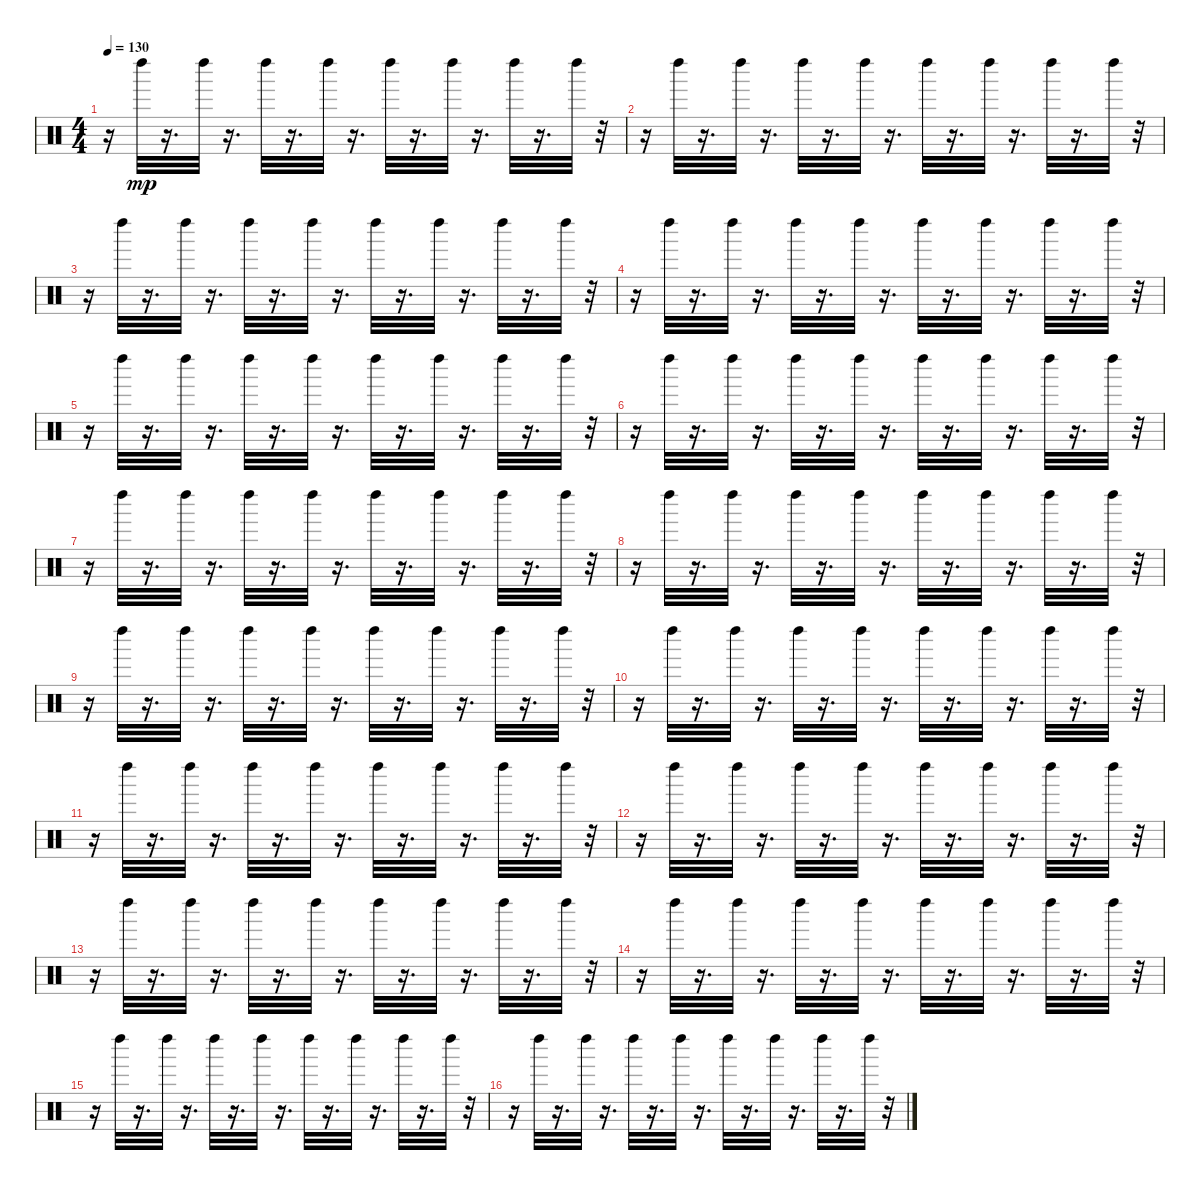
\track "" {instrument percussion}
\staff {score}
\articulation defaults
\ts (4 4)
\tempo 130
\clef neutral
\ks c
r.16{dy mp} "Left Maraca (hit)".32 r.16{d} "Left Maraca (hit)".32 r.16{d} "Left Maraca (hit)".32 r.16{d} "Left Maraca (hit)".32 r.16{d} "Left Maraca (hit)".32 r.16{d} "Left Maraca (hit)".32 r.16{d} "Left Maraca (hit)".32 r.16{d} "Left Maraca (hit)".32 r.32 |
r.16 "Left Maraca (hit)".32 r.16{d} "Left Maraca (hit)".32 r.16{d} "Left Maraca (hit)".32 r.16{d} "Left Maraca (hit)".32 r.16{d} "Left Maraca (hit)".32 r.16{d} "Left Maraca (hit)".32 r.16{d} "Left Maraca (hit)".32 r.16{d} "Left Maraca (hit)".32 r.32 |
r.16 "Left Maraca (hit)".32 r.16{d} "Left Maraca (hit)".32 r.16{d} "Left Maraca (hit)".32 r.16{d} "Left Maraca (hit)".32 r.16{d} "Left Maraca (hit)".32 r.16{d} "Left Maraca (hit)".32 r.16{d} "Left Maraca (hit)".32 r.16{d} "Left Maraca (hit)".32 r.32 |
r.16 "Left Maraca (hit)".32 r.16{d} "Left Maraca (hit)".32 r.16{d} "Left Maraca (hit)".32 r.16{d} "Left Maraca (hit)".32 r.16{d} "Left Maraca (hit)".32 r.16{d} "Left Maraca (hit)".32 r.16{d} "Left Maraca (hit)".32 r.16{d} "Left Maraca (hit)".32 r.32 |
r.16 "Left Maraca (hit)".32 r.16{d} "Left Maraca (hit)".32 r.16{d} "Left Maraca (hit)".32 r.16{d} "Left Maraca (hit)".32 r.16{d} "Left Maraca (hit)".32 r.16{d} "Left Maraca (hit)".32 r.16{d} "Left Maraca (hit)".32 r.16{d} "Left Maraca (hit)".32 r.32 |
r.16 "Left Maraca (hit)".32 r.16{d} "Left Maraca (hit)".32 r.16{d} "Left Maraca (hit)".32 r.16{d} "Left Maraca (hit)".32 r.16{d} "Left Maraca (hit)".32 r.16{d} "Left Maraca (hit)".32 r.16{d} "Left Maraca (hit)".32 r.16{d} "Left Maraca (hit)".32 r.32 |
r.16 "Left Maraca (hit)".32 r.16{d} "Left Maraca (hit)".32 r.16{d} "Left Maraca (hit)".32 r.16{d} "Left Maraca (hit)".32 r.16{d} "Left Maraca (hit)".32 r.16{d} "Left Maraca (hit)".32 r.16{d} "Left Maraca (hit)".32 r.16{d} "Left Maraca (hit)".32 r.32 |
r.16 "Left Maraca (hit)".32 r.16{d} "Left Maraca (hit)".32 r.16{d} "Left Maraca (hit)".32 r.16{d} "Left Maraca (hit)".32 r.16{d} "Left Maraca (hit)".32 r.16{d} "Left Maraca (hit)".32 r.16{d} "Left Maraca (hit)".32 r.16{d} "Left Maraca (hit)".32 r.32 |
r.16 "Left Maraca (hit)".32 r.16{d} "Left Maraca (hit)".32 r.16{d} "Left Maraca (hit)".32 r.16{d} "Left Maraca (hit)".32 r.16{d} "Left Maraca (hit)".32 r.16{d} "Left Maraca (hit)".32 r.16{d} "Left Maraca (hit)".32 r.16{d} "Left Maraca (hit)".32 r.32 |
r.16 "Left Maraca (hit)".32 r.16{d} "Left Maraca (hit)".32 r.16{d} "Left Maraca (hit)".32 r.16{d} "Left Maraca (hit)".32 r.16{d} "Left Maraca (hit)".32 r.16{d} "Left Maraca (hit)".32 r.16{d} "Left Maraca (hit)".32 r.16{d} "Left Maraca (hit)".32 r.32 |
r.16 "Left Maraca (hit)".32 r.16{d} "Left Maraca (hit)".32 r.16{d} "Left Maraca (hit)".32 r.16{d} "Left Maraca (hit)".32 r.16{d} "Left Maraca (hit)".32 r.16{d} "Left Maraca (hit)".32 r.16{d} "Left Maraca (hit)".32 r.16{d} "Left Maraca (hit)".32 r.32 |
r.16 "Left Maraca (hit)".32 r.16{d} "Left Maraca (hit)".32 r.16{d} "Left Maraca (hit)".32 r.16{d} "Left Maraca (hit)".32 r.16{d} "Left Maraca (hit)".32 r.16{d} "Left Maraca (hit)".32 r.16{d} "Left Maraca (hit)".32 r.16{d} "Left Maraca (hit)".32 r.32 |
r.16 "Left Maraca (hit)".32 r.16{d} "Left Maraca (hit)".32 r.16{d} "Left Maraca (hit)".32 r.16{d} "Left Maraca (hit)".32 r.16{d} "Left Maraca (hit)".32 r.16{d} "Left Maraca (hit)".32 r.16{d} "Left Maraca (hit)".32 r.16{d} "Left Maraca (hit)".32 r.32 |
r.16 "Left Maraca (hit)".32 r.16{d} "Left Maraca (hit)".32 r.16{d} "Left Maraca (hit)".32 r.16{d} "Left Maraca (hit)".32 r.16{d} "Left Maraca (hit)".32 r.16{d} "Left Maraca (hit)".32 r.16{d} "Left Maraca (hit)".32 r.16{d} "Left Maraca (hit)".32 r.32 |
r.16 "Left Maraca (hit)".32 r.16{d} "Left Maraca (hit)".32 r.16{d} "Left Maraca (hit)".32 r.16{d} "Left Maraca (hit)".32 r.16{d} "Left Maraca (hit)".32 r.16{d} "Left Maraca (hit)".32 r.16{d} "Left Maraca (hit)".32 r.16{d} "Left Maraca (hit)".32 r.32 |
r.16 "Left Maraca (hit)".32 r.16{d} "Left Maraca (hit)".32 r.16{d} "Left Maraca (hit)".32 r.16{d} "Left Maraca (hit)".32 r.16{d} "Left Maraca (hit)".32 r.16{d} "Left Maraca (hit)".32 r.16{d} "Left Maraca (hit)".32 r.16{d} "Left Maraca (hit)".32 r.32
